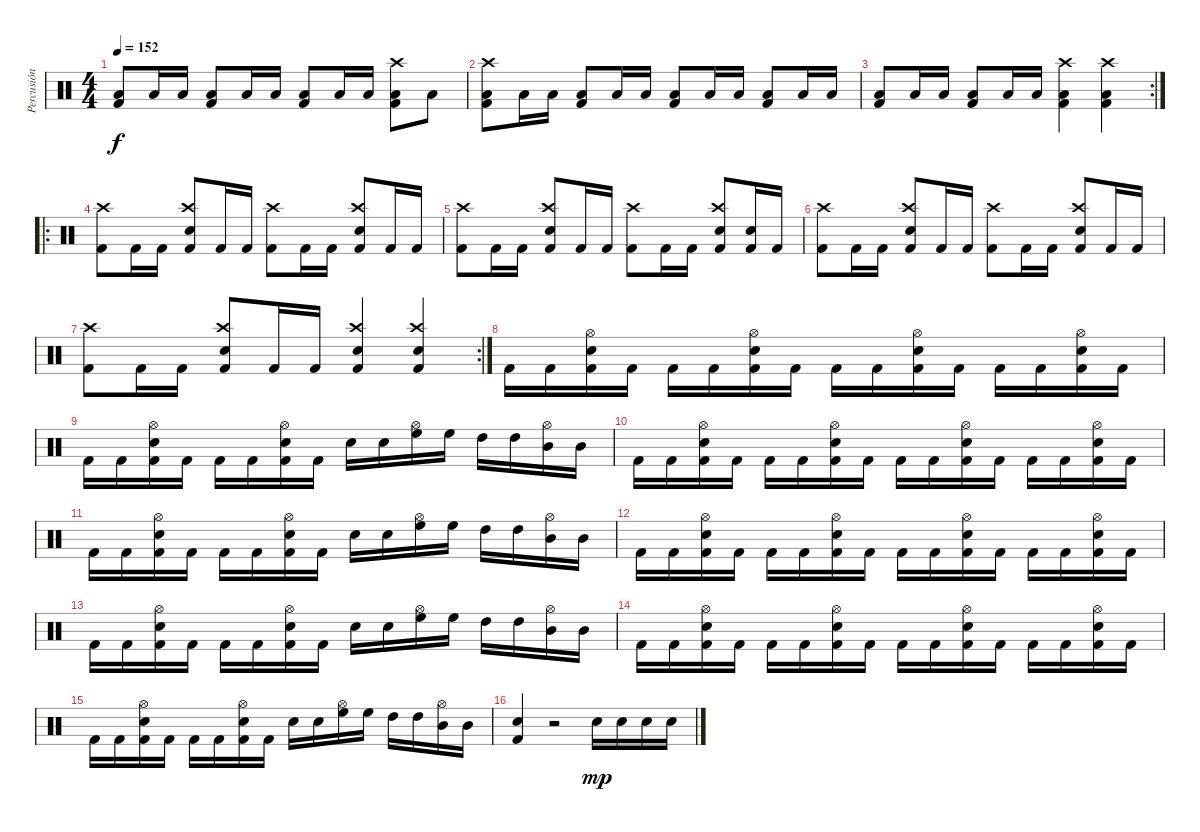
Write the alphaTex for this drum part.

\track ("Percusión" "Percusión") {instrument percussion}
\staff {score}
\articulation defaults
\ts (4 4)
\tempo 152
\clef neutral
\ks c
("Kick (hit) 2" "Low Floor Tom (hit)").8{dy f} "Low Floor Tom (hit)".16 "Low Floor Tom (hit)".16 ("Kick (hit) 2" "Low Floor Tom (hit)").8 "Low Floor Tom (hit)".16 "Low Floor Tom (hit)".16 ("Kick (hit) 2" "Low Floor Tom (hit)").8 "Low Floor Tom (hit)".16 "Low Floor Tom (hit)".16 ("Crash high (hit)" "Kick (hit) 2" "Low Floor Tom (hit)").8 "Low Floor Tom (hit)".8 |
("Crash high (hit)" "Kick (hit) 2" "Low Floor Tom (hit)").8 "Low Floor Tom (hit)".16 "Low Floor Tom (hit)".16 ("Kick (hit) 2" "Low Floor Tom (hit)").8 "Low Floor Tom (hit)".16 "Low Floor Tom (hit)".16 ("Kick (hit) 2" "Low Floor Tom (hit)").8 "Low Floor Tom (hit)".16 "Low Floor Tom (hit)".16 ("Kick (hit) 2" "Low Floor Tom (hit)").8 "Low Floor Tom (hit)".16 "Low Floor Tom (hit)".16 |
\rc 2
("Kick (hit) 2" "Low Floor Tom (hit)").8 "Low Floor Tom (hit)".16 "Low Floor Tom (hit)".16 ("Kick (hit) 2" "Low Floor Tom (hit)").8 "Low Floor Tom (hit)".16 "Low Floor Tom (hit)".16 ("Crash high (hit)" "Kick (hit) 2" "Low Floor Tom (hit)").4 ("Crash high (hit)" "Kick (hit) 2" "Low Floor Tom (hit)").4 |
\ro
("Crash high (hit)" "Kick (hit) 2").8 "Kick (hit) 2".16 "Kick (hit) 2".16 ("Crash high (hit)" "Snare (hit) 2" "Kick (hit) 2").8 "Kick (hit) 2".16 "Kick (hit) 2".16 ("Crash high (hit)" "Kick (hit) 2").8 "Kick (hit) 2".16 "Kick (hit) 2".16 ("Crash high (hit)" "Snare (hit) 2" "Kick (hit) 2").8 "Kick (hit) 2".16 "Kick (hit) 2".16 |
("Crash high (hit)" "Kick (hit) 2").8 "Kick (hit) 2".16 "Kick (hit) 2".16 ("Crash high (hit)" "Snare (hit) 2" "Kick (hit) 2").8 "Kick (hit) 2".16 "Kick (hit) 2".16 ("Crash high (hit)" "Kick (hit) 2").8 "Kick (hit) 2".16 "Kick (hit) 2".16 ("Crash high (hit)" "Snare (hit) 2" "Kick (hit) 2").8 ("Snare (hit) 2" "Kick (hit) 2").16 "Kick (hit) 2".16 |
("Crash high (hit)" "Kick (hit) 2").8 "Kick (hit) 2".16 "Kick (hit) 2".16 ("Crash high (hit)" "Snare (hit) 2" "Kick (hit) 2").8 "Kick (hit) 2".16 "Kick (hit) 2".16 ("Crash high (hit)" "Kick (hit) 2").8 "Kick (hit) 2".16 "Kick (hit) 2".16 ("Crash high (hit)" "Snare (hit) 2" "Kick (hit) 2").8 "Kick (hit) 2".16 "Kick (hit) 2".16 |
\rc 2
("Crash high (hit)" "Kick (hit) 2").8 "Kick (hit) 2".16 "Kick (hit) 2".16 ("Crash high (hit)" "Snare (hit) 2" "Kick (hit) 2").8 "Kick (hit) 2".16 "Kick (hit) 2".16 ("Crash high (hit)" "Snare (hit) 2" "Kick (hit) 2").4 ("Crash high (hit)" "Snare (hit) 2" "Kick (hit) 2").4 |
"Kick (hit) 2".16 "Kick (hit) 2".16 ("Hi-Hat (open)" "Snare (hit) 2" "Kick (hit) 2").16 "Kick (hit) 2".16 "Kick (hit) 2".16 "Kick (hit) 2".16 ("Hi-Hat (open)" "Snare (hit) 2" "Kick (hit) 2").16 "Kick (hit) 2".16 "Kick (hit) 2".16 "Kick (hit) 2".16 ("Hi-Hat (open)" "Snare (hit) 2" "Kick (hit) 2").16 "Kick (hit) 2".16 "Kick (hit) 2".16 "Kick (hit) 2".16 ("Hi-Hat (open)" "Snare (hit) 2" "Kick (hit) 2").16 "Kick (hit) 2".16 |
"Kick (hit) 2".16 "Kick (hit) 2".16 ("Hi-Hat (open)" "Snare (hit) 2" "Kick (hit) 2").16 "Kick (hit) 2".16 "Kick (hit) 2".16 "Kick (hit) 2".16 ("Hi-Hat (open)" "Snare (hit) 2" "Kick (hit) 2").16 "Kick (hit) 2".16 "Snare (hit) 2".16 "Snare (hit) 2".16 ("Hi-Hat (open)" "High Floor Tom (hit)").16 "High Floor Tom (hit)".16 "High Tom (hit)".16 "High Tom (hit)".16 ("Hi-Hat (open)" "Mid Tom (hit)").16 "Mid Tom (hit)".16 |
"Kick (hit) 2".16 "Kick (hit) 2".16 ("Hi-Hat (open)" "Snare (hit) 2" "Kick (hit) 2").16 "Kick (hit) 2".16 "Kick (hit) 2".16 "Kick (hit) 2".16 ("Hi-Hat (open)" "Snare (hit) 2" "Kick (hit) 2").16 "Kick (hit) 2".16 "Kick (hit) 2".16 "Kick (hit) 2".16 ("Hi-Hat (open)" "Snare (hit) 2" "Kick (hit) 2").16 "Kick (hit) 2".16 "Kick (hit) 2".16 "Kick (hit) 2".16 ("Hi-Hat (open)" "Snare (hit) 2" "Kick (hit) 2").16 "Kick (hit) 2".16 |
"Kick (hit) 2".16 "Kick (hit) 2".16 ("Hi-Hat (open)" "Snare (hit) 2" "Kick (hit) 2").16 "Kick (hit) 2".16 "Kick (hit) 2".16 "Kick (hit) 2".16 ("Hi-Hat (open)" "Snare (hit) 2" "Kick (hit) 2").16 "Kick (hit) 2".16 "Snare (hit) 2".16 "Snare (hit) 2".16 ("Hi-Hat (open)" "High Floor Tom (hit)").16 "High Floor Tom (hit)".16 "High Tom (hit)".16 "High Tom (hit)".16 ("Hi-Hat (open)" "Mid Tom (hit)").16 "Mid Tom (hit)".16 |
"Kick (hit) 2".16 "Kick (hit) 2".16 ("Hi-Hat (open)" "Snare (hit) 2" "Kick (hit) 2").16 "Kick (hit) 2".16 "Kick (hit) 2".16 "Kick (hit) 2".16 ("Hi-Hat (open)" "Snare (hit) 2" "Kick (hit) 2").16 "Kick (hit) 2".16 "Kick (hit) 2".16 "Kick (hit) 2".16 ("Hi-Hat (open)" "Snare (hit) 2" "Kick (hit) 2").16 "Kick (hit) 2".16 "Kick (hit) 2".16 "Kick (hit) 2".16 ("Hi-Hat (open)" "Snare (hit) 2" "Kick (hit) 2").16 "Kick (hit) 2".16 |
"Kick (hit) 2".16 "Kick (hit) 2".16 ("Hi-Hat (open)" "Snare (hit) 2" "Kick (hit) 2").16 "Kick (hit) 2".16 "Kick (hit) 2".16 "Kick (hit) 2".16 ("Hi-Hat (open)" "Snare (hit) 2" "Kick (hit) 2").16 "Kick (hit) 2".16 "Snare (hit) 2".16 "Snare (hit) 2".16 ("Hi-Hat (open)" "High Floor Tom (hit)").16 "High Floor Tom (hit)".16 "High Tom (hit)".16 "High Tom (hit)".16 ("Hi-Hat (open)" "Mid Tom (hit)").16 "Mid Tom (hit)".16 |
"Kick (hit) 2".16 "Kick (hit) 2".16 ("Hi-Hat (open)" "Snare (hit) 2" "Kick (hit) 2").16 "Kick (hit) 2".16 "Kick (hit) 2".16 "Kick (hit) 2".16 ("Hi-Hat (open)" "Snare (hit) 2" "Kick (hit) 2").16 "Kick (hit) 2".16 "Kick (hit) 2".16 "Kick (hit) 2".16 ("Hi-Hat (open)" "Snare (hit) 2" "Kick (hit) 2").16 "Kick (hit) 2".16 "Kick (hit) 2".16 "Kick (hit) 2".16 ("Hi-Hat (open)" "Snare (hit) 2" "Kick (hit) 2").16 "Kick (hit) 2".16 |
"Kick (hit) 2".16 "Kick (hit) 2".16 ("Hi-Hat (open)" "Snare (hit) 2" "Kick (hit) 2").16 "Kick (hit) 2".16 "Kick (hit) 2".16 "Kick (hit) 2".16 ("Hi-Hat (open)" "Snare (hit) 2" "Kick (hit) 2").16 "Kick (hit) 2".16 "Snare (hit) 2".16 "Snare (hit) 2".16 ("Hi-Hat (open)" "High Floor Tom (hit)").16 "High Floor Tom (hit)".16 "High Tom (hit)".16 "High Tom (hit)".16 ("Hi-Hat (open)" "Mid Tom (hit)").16 "Mid Tom (hit)".16 |
("Snare (hit) 2" "Kick (hit) 2").4 r.2 "Snare (hit) 2".16{dy mp} "Snare (hit) 2".16 "Snare (hit) 2".16 "Snare (hit) 2".16
